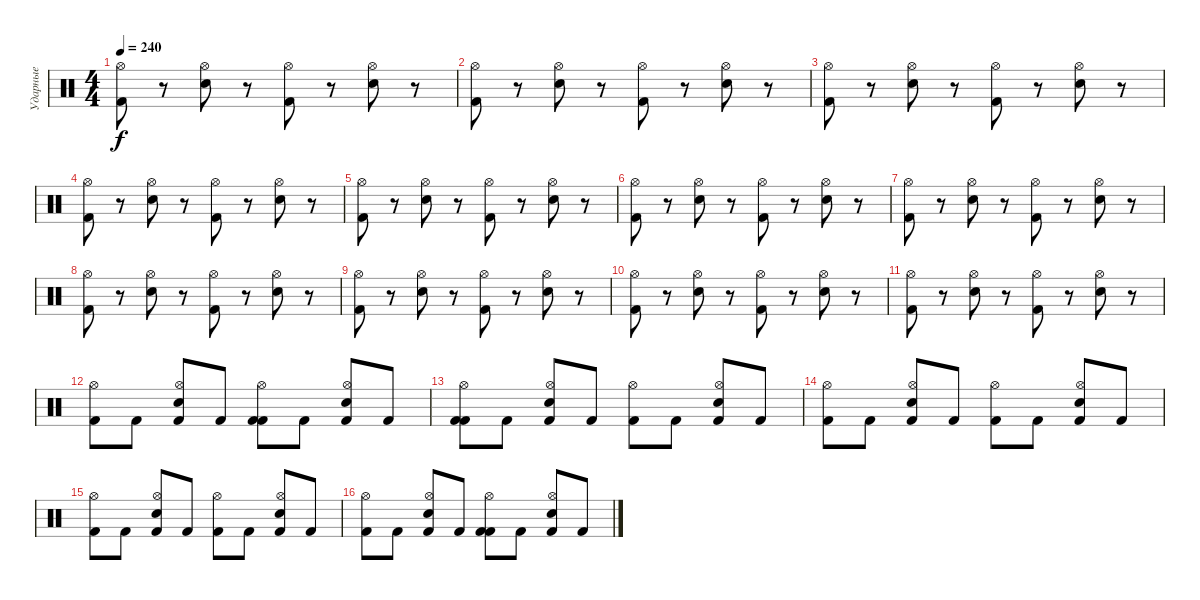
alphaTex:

\track ("Ударные" "Ударные") {instrument percussion}
\staff {score}
\articulation defaults
\ts (4 4)
\tempo 240
\clef neutral
\ks c
("Kick (hit) 2" "Hi-Hat (open)").8{dy f} r.8 ("Electric Snare (hit)" "Hi-Hat (open)").8 r.8 ("Kick (hit) 2" "Hi-Hat (open)").8 r.8 ("Electric Snare (hit)" "Hi-Hat (open)").8 r.8 |
("Kick (hit) 2" "Hi-Hat (open)").8 r.8 ("Electric Snare (hit)" "Hi-Hat (open)").8 r.8 ("Kick (hit) 2" "Hi-Hat (open)").8 r.8 ("Electric Snare (hit)" "Hi-Hat (open)").8 r.8 |
("Kick (hit) 2" "Hi-Hat (open)").8 r.8 ("Electric Snare (hit)" "Hi-Hat (open)").8 r.8 ("Kick (hit) 2" "Hi-Hat (open)").8 r.8 ("Electric Snare (hit)" "Hi-Hat (open)").8 r.8 |
("Kick (hit) 2" "Hi-Hat (open)").8 r.8 ("Electric Snare (hit)" "Hi-Hat (open)").8 r.8 ("Kick (hit) 2" "Hi-Hat (open)").8 r.8 ("Electric Snare (hit)" "Hi-Hat (open)").8 r.8 |
("Kick (hit) 2" "Hi-Hat (open)").8 r.8 ("Electric Snare (hit)" "Hi-Hat (open)").8 r.8 ("Kick (hit) 2" "Hi-Hat (open)").8 r.8 ("Electric Snare (hit)" "Hi-Hat (open)").8 r.8 |
("Kick (hit) 2" "Hi-Hat (open)").8 r.8 ("Electric Snare (hit)" "Hi-Hat (open)").8 r.8 ("Kick (hit) 2" "Hi-Hat (open)").8 r.8 ("Electric Snare (hit)" "Hi-Hat (open)").8 r.8 |
("Kick (hit) 2" "Hi-Hat (open)").8 r.8 ("Electric Snare (hit)" "Hi-Hat (open)").8 r.8 ("Kick (hit) 2" "Hi-Hat (open)").8 r.8 ("Electric Snare (hit)" "Hi-Hat (open)").8 r.8 |
("Kick (hit) 2" "Hi-Hat (open)").8 r.8 ("Electric Snare (hit)" "Hi-Hat (open)").8 r.8 ("Kick (hit) 2" "Hi-Hat (open)").8 r.8 ("Electric Snare (hit)" "Hi-Hat (open)").8 r.8 |
("Kick (hit) 2" "Hi-Hat (open)").8 r.8 ("Electric Snare (hit)" "Hi-Hat (open)").8 r.8 ("Kick (hit) 2" "Hi-Hat (open)").8 r.8 ("Electric Snare (hit)" "Hi-Hat (open)").8 r.8 |
("Kick (hit) 2" "Hi-Hat (open)").8 r.8 ("Electric Snare (hit)" "Hi-Hat (open)").8 r.8 ("Kick (hit) 2" "Hi-Hat (open)").8 r.8 ("Electric Snare (hit)" "Hi-Hat (open)").8 r.8 |
("Kick (hit) 2" "Hi-Hat (open)").8 r.8 ("Electric Snare (hit)" "Hi-Hat (open)").8 r.8 ("Kick (hit) 2" "Hi-Hat (open)").8 r.8 ("Electric Snare (hit)" "Hi-Hat (open)").8 r.8 |
("Kick (hit) 2" "Hi-Hat (open)").8 "Kick (hit) 2".8 ("Electric Snare (hit)" "Hi-Hat (open)" "Kick (hit) 2").8 "Kick (hit) 2".8 ("Kick (hit) 2" "Hi-Hat (open)" "Kick (hit) 2").8 "Kick (hit) 2".8 ("Electric Snare (hit)" "Hi-Hat (open)" "Kick (hit) 2").8 "Kick (hit) 2".8 |
("Kick (hit) 2" "Hi-Hat (open)" "Kick (hit) 2").8 "Kick (hit) 2".8 ("Electric Snare (hit)" "Hi-Hat (open)" "Kick (hit) 2").8 "Kick (hit) 2".8 ("Kick (hit) 2" "Hi-Hat (open)").8 "Kick (hit) 2".8 ("Electric Snare (hit)" "Hi-Hat (open)" "Kick (hit) 2").8 "Kick (hit) 2".8 |
("Kick (hit) 2" "Hi-Hat (open)").8 "Kick (hit) 2".8 ("Electric Snare (hit)" "Hi-Hat (open)" "Kick (hit) 2").8 "Kick (hit) 2".8 ("Kick (hit) 2" "Hi-Hat (open)").8 "Kick (hit) 2".8 ("Electric Snare (hit)" "Hi-Hat (open)" "Kick (hit) 2").8 "Kick (hit) 2".8 |
("Kick (hit) 2" "Hi-Hat (open)").8 "Kick (hit) 2".8 ("Electric Snare (hit)" "Hi-Hat (open)" "Kick (hit) 2").8 "Kick (hit) 2".8 ("Kick (hit) 2" "Hi-Hat (open)").8 "Kick (hit) 2".8 ("Electric Snare (hit)" "Hi-Hat (open)" "Kick (hit) 2").8 "Kick (hit) 2".8 |
("Kick (hit) 2" "Hi-Hat (open)").8 "Kick (hit) 2".8 ("Electric Snare (hit)" "Hi-Hat (open)" "Kick (hit) 2").8 "Kick (hit) 2".8 ("Kick (hit) 2" "Hi-Hat (open)" "Kick (hit) 2").8 "Kick (hit) 2".8 ("Electric Snare (hit)" "Hi-Hat (open)" "Kick (hit) 2").8 "Kick (hit) 2".8
